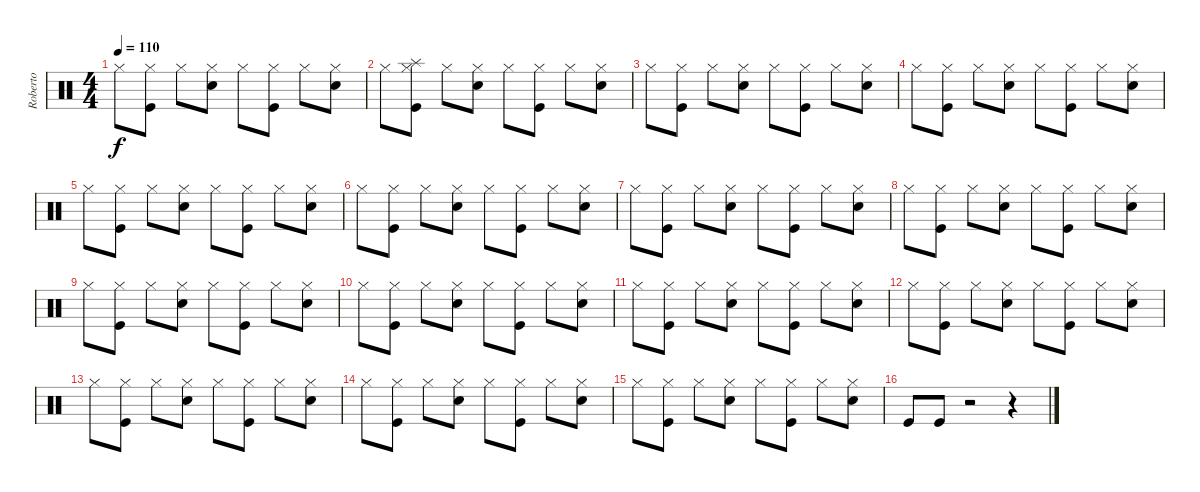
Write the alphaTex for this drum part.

\track ("Roberto" "Roberto") {instrument percussion}
\staff {score}
\articulation defaults
\ts (4 4)
\tempo 110
\clef neutral
\ks c "Hi-Hat (closed)".8{dy f volume 11}
("Hi-Hat (closed)" "Kick (hit)").8 "Hi-Hat (closed)".8 ("Hi-Hat (closed)" "Snare (hit) 2").8 "Hi-Hat (closed)".8 ("Hi-Hat (closed)" "Kick (hit)").8 "Hi-Hat (closed)".8 ("Hi-Hat (closed)" "Snare (hit) 2").8 |
"Hi-Hat (closed)".8{volume 11} ("Splash (hit)" "Hi-Hat (closed)" "Kick (hit)").8 "Hi-Hat (closed)".8 ("Hi-Hat (closed)" "Snare (hit) 2").8 "Hi-Hat (closed)".8 ("Hi-Hat (closed)" "Kick (hit)").8 "Hi-Hat (closed)".8 ("Hi-Hat (closed)" "Snare (hit) 2").8 |
"Hi-Hat (closed)".8{volume 11} ("Hi-Hat (closed)" "Kick (hit)").8 "Hi-Hat (closed)".8 ("Hi-Hat (closed)" "Snare (hit) 2").8 "Hi-Hat (closed)".8 ("Hi-Hat (closed)" "Kick (hit)").8 "Hi-Hat (closed)".8 ("Hi-Hat (closed)" "Snare (hit) 2").8 |
"Hi-Hat (closed)".8{volume 11} ("Hi-Hat (closed)" "Kick (hit)").8 "Hi-Hat (closed)".8 ("Hi-Hat (closed)" "Snare (hit) 2").8 "Hi-Hat (closed)".8 ("Hi-Hat (closed)" "Kick (hit)").8 "Hi-Hat (closed)".8 ("Hi-Hat (closed)" "Snare (hit) 2").8 |
"Hi-Hat (closed)".8{volume 11} ("Hi-Hat (closed)" "Kick (hit)").8 "Hi-Hat (closed)".8 ("Hi-Hat (closed)" "Snare (hit) 2").8 "Hi-Hat (closed)".8 ("Hi-Hat (closed)" "Kick (hit)").8 "Hi-Hat (closed)".8 ("Hi-Hat (closed)" "Snare (hit) 2").8 |
"Hi-Hat (closed)".8{volume 11} ("Hi-Hat (closed)" "Kick (hit)").8 "Hi-Hat (closed)".8 ("Hi-Hat (closed)" "Snare (hit) 2").8 "Hi-Hat (closed)".8 ("Hi-Hat (closed)" "Kick (hit)").8 "Hi-Hat (closed)".8 ("Hi-Hat (closed)" "Snare (hit) 2").8 |
"Hi-Hat (closed)".8{volume 11} ("Hi-Hat (closed)" "Kick (hit)").8 "Hi-Hat (closed)".8 ("Hi-Hat (closed)" "Snare (hit) 2").8 "Hi-Hat (closed)".8 ("Hi-Hat (closed)" "Kick (hit)").8 "Hi-Hat (closed)".8 ("Hi-Hat (closed)" "Snare (hit) 2").8 |
"Hi-Hat (closed)".8{volume 11} ("Hi-Hat (closed)" "Kick (hit)").8 "Hi-Hat (closed)".8 ("Hi-Hat (closed)" "Snare (hit) 2").8 "Hi-Hat (closed)".8 ("Hi-Hat (closed)" "Kick (hit)").8 "Hi-Hat (closed)".8 ("Hi-Hat (closed)" "Snare (hit) 2").8 |
"Hi-Hat (closed)".8{volume 11} ("Hi-Hat (closed)" "Kick (hit)").8 "Hi-Hat (closed)".8 ("Hi-Hat (closed)" "Snare (hit) 2").8 "Hi-Hat (closed)".8 ("Hi-Hat (closed)" "Kick (hit)").8 "Hi-Hat (closed)".8 ("Hi-Hat (closed)" "Snare (hit) 2").8 |
"Hi-Hat (closed)".8{volume 11} ("Hi-Hat (closed)" "Kick (hit)").8 "Hi-Hat (closed)".8 ("Hi-Hat (closed)" "Snare (hit) 2").8 "Hi-Hat (closed)".8 ("Hi-Hat (closed)" "Kick (hit)").8 "Hi-Hat (closed)".8 ("Hi-Hat (closed)" "Snare (hit) 2").8 |
"Hi-Hat (closed)".8{volume 11} ("Hi-Hat (closed)" "Kick (hit)").8 "Hi-Hat (closed)".8 ("Hi-Hat (closed)" "Snare (hit) 2").8 "Hi-Hat (closed)".8 ("Hi-Hat (closed)" "Kick (hit)").8 "Hi-Hat (closed)".8 ("Hi-Hat (closed)" "Snare (hit) 2").8 |
"Hi-Hat (closed)".8{volume 11} ("Hi-Hat (closed)" "Kick (hit)").8 "Hi-Hat (closed)".8 ("Hi-Hat (closed)" "Snare (hit) 2").8 "Hi-Hat (closed)".8 ("Hi-Hat (closed)" "Kick (hit)").8 "Hi-Hat (closed)".8 ("Hi-Hat (closed)" "Snare (hit) 2").8 |
"Hi-Hat (closed)".8{volume 11} ("Hi-Hat (closed)" "Kick (hit)").8 "Hi-Hat (closed)".8 ("Hi-Hat (closed)" "Snare (hit) 2").8 "Hi-Hat (closed)".8 ("Hi-Hat (closed)" "Kick (hit)").8 "Hi-Hat (closed)".8 ("Hi-Hat (closed)" "Snare (hit) 2").8 |
"Hi-Hat (closed)".8{volume 11} ("Hi-Hat (closed)" "Kick (hit)").8 "Hi-Hat (closed)".8 ("Hi-Hat (closed)" "Snare (hit) 2").8 "Hi-Hat (closed)".8 ("Hi-Hat (closed)" "Kick (hit)").8 "Hi-Hat (closed)".8 ("Hi-Hat (closed)" "Snare (hit) 2").8 |
"Hi-Hat (closed)".8{volume 11} ("Hi-Hat (closed)" "Kick (hit)").8 "Hi-Hat (closed)".8 ("Hi-Hat (closed)" "Snare (hit) 2").8 "Hi-Hat (closed)".8 ("Hi-Hat (closed)" "Kick (hit)").8 "Hi-Hat (closed)".8 ("Hi-Hat (closed)" "Snare (hit) 2").8 |
"Kick (hit)".8 "Kick (hit)".8 r.2 r.4
